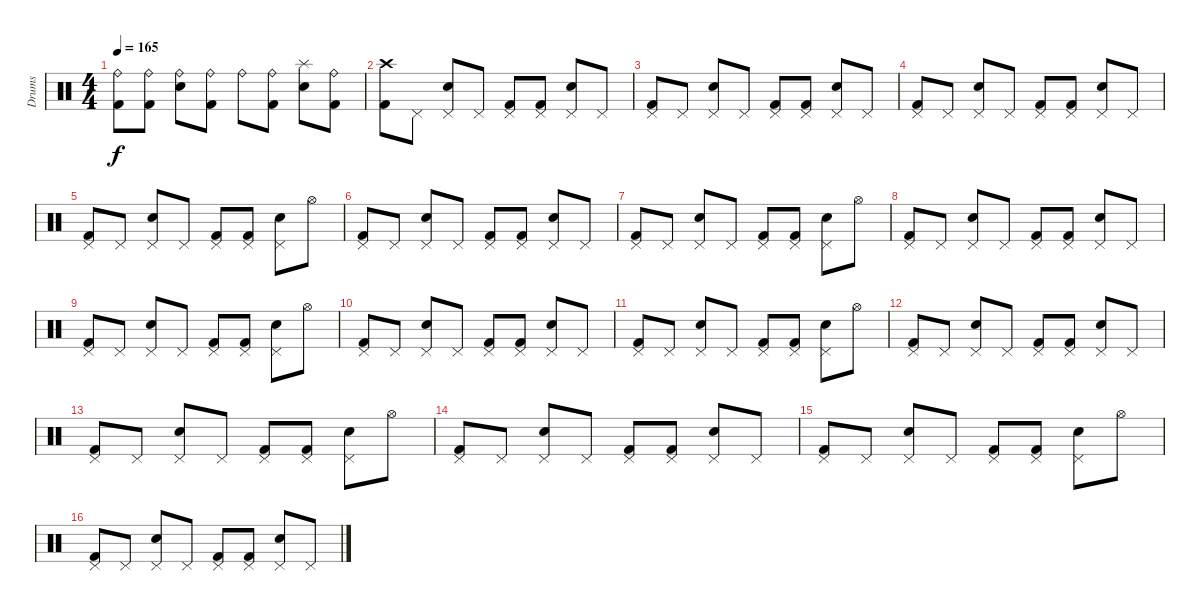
\track ("Drums" "Drums") {instrument percussion}
\staff {score}
\articulation defaults
\ts (4 4)
\tempo 165
\clef neutral
\ks c
("Ride (bell)" "Kick (hit) 2").8{dy f} ("Ride (bell)" "Kick (hit) 2").8 ("Ride (bell)" "Snare (hit) 2").8 ("Ride (bell)" "Kick (hit) 2").8 "Ride (bell)".8 ("Ride (bell)" "Kick (hit) 2").8 ("Splash (hit)" "Snare (hit) 2").8 ("Ride (bell)" "Kick (hit) 2").8 |
("Crash high (hit)" "Kick (hit) 2").8 "Pedal Hi-Hat (hit)".8 ("Pedal Hi-Hat (hit)" "Snare (hit) 2").8 "Pedal Hi-Hat (hit)".8 ("Pedal Hi-Hat (hit)" "Kick (hit) 2").8 ("Pedal Hi-Hat (hit)" "Kick (hit) 2").8 ("Pedal Hi-Hat (hit)" "Snare (hit) 2").8 "Pedal Hi-Hat (hit)".8 |
("Pedal Hi-Hat (hit)" "Kick (hit) 2").8 "Pedal Hi-Hat (hit)".8 ("Pedal Hi-Hat (hit)" "Snare (hit) 2").8 "Pedal Hi-Hat (hit)".8 ("Pedal Hi-Hat (hit)" "Kick (hit) 2").8 ("Pedal Hi-Hat (hit)" "Kick (hit) 2").8 ("Pedal Hi-Hat (hit)" "Snare (hit) 2").8 "Pedal Hi-Hat (hit)".8 |
("Pedal Hi-Hat (hit)" "Kick (hit) 2").8 "Pedal Hi-Hat (hit)".8 ("Pedal Hi-Hat (hit)" "Snare (hit) 2").8 "Pedal Hi-Hat (hit)".8 ("Pedal Hi-Hat (hit)" "Kick (hit) 2").8 ("Pedal Hi-Hat (hit)" "Kick (hit) 2").8 ("Pedal Hi-Hat (hit)" "Snare (hit) 2").8 "Pedal Hi-Hat (hit)".8 |
("Pedal Hi-Hat (hit)" "Kick (hit) 2").8 "Pedal Hi-Hat (hit)".8 ("Pedal Hi-Hat (hit)" "Snare (hit) 2").8 "Pedal Hi-Hat (hit)".8 ("Pedal Hi-Hat (hit)" "Kick (hit) 2").8 ("Pedal Hi-Hat (hit)" "Kick (hit) 2").8 ("Pedal Hi-Hat (hit)" "Snare (hit) 2").8 "Hi-Hat (open)".8 |
("Pedal Hi-Hat (hit)" "Kick (hit) 2").8 "Pedal Hi-Hat (hit)".8 ("Pedal Hi-Hat (hit)" "Snare (hit) 2").8 "Pedal Hi-Hat (hit)".8 ("Pedal Hi-Hat (hit)" "Kick (hit) 2").8 ("Pedal Hi-Hat (hit)" "Kick (hit) 2").8 ("Pedal Hi-Hat (hit)" "Snare (hit) 2").8 "Pedal Hi-Hat (hit)".8 |
("Pedal Hi-Hat (hit)" "Kick (hit) 2").8 "Pedal Hi-Hat (hit)".8 ("Pedal Hi-Hat (hit)" "Snare (hit) 2").8 "Pedal Hi-Hat (hit)".8 ("Pedal Hi-Hat (hit)" "Kick (hit) 2").8 ("Pedal Hi-Hat (hit)" "Kick (hit) 2").8 ("Pedal Hi-Hat (hit)" "Snare (hit) 2").8 "Hi-Hat (open)".8 |
("Pedal Hi-Hat (hit)" "Kick (hit) 2").8 "Pedal Hi-Hat (hit)".8 ("Pedal Hi-Hat (hit)" "Snare (hit) 2").8 "Pedal Hi-Hat (hit)".8 ("Pedal Hi-Hat (hit)" "Kick (hit) 2").8 ("Pedal Hi-Hat (hit)" "Kick (hit) 2").8 ("Pedal Hi-Hat (hit)" "Snare (hit) 2").8 "Pedal Hi-Hat (hit)".8 |
("Pedal Hi-Hat (hit)" "Kick (hit) 2").8 "Pedal Hi-Hat (hit)".8 ("Pedal Hi-Hat (hit)" "Snare (hit) 2").8 "Pedal Hi-Hat (hit)".8 ("Pedal Hi-Hat (hit)" "Kick (hit) 2").8 ("Pedal Hi-Hat (hit)" "Kick (hit) 2").8 ("Pedal Hi-Hat (hit)" "Snare (hit) 2").8 "Hi-Hat (open)".8 |
("Pedal Hi-Hat (hit)" "Kick (hit) 2").8 "Pedal Hi-Hat (hit)".8 ("Pedal Hi-Hat (hit)" "Snare (hit) 2").8 "Pedal Hi-Hat (hit)".8 ("Pedal Hi-Hat (hit)" "Kick (hit) 2").8 ("Pedal Hi-Hat (hit)" "Kick (hit) 2").8 ("Pedal Hi-Hat (hit)" "Snare (hit) 2").8 "Pedal Hi-Hat (hit)".8 |
("Pedal Hi-Hat (hit)" "Kick (hit) 2").8 "Pedal Hi-Hat (hit)".8 ("Pedal Hi-Hat (hit)" "Snare (hit) 2").8 "Pedal Hi-Hat (hit)".8 ("Pedal Hi-Hat (hit)" "Kick (hit) 2").8 ("Pedal Hi-Hat (hit)" "Kick (hit) 2").8 ("Pedal Hi-Hat (hit)" "Snare (hit) 2").8 "Hi-Hat (open)".8 |
("Pedal Hi-Hat (hit)" "Kick (hit) 2").8 "Pedal Hi-Hat (hit)".8 ("Pedal Hi-Hat (hit)" "Snare (hit) 2").8 "Pedal Hi-Hat (hit)".8 ("Pedal Hi-Hat (hit)" "Kick (hit) 2").8 ("Pedal Hi-Hat (hit)" "Kick (hit) 2").8 ("Pedal Hi-Hat (hit)" "Snare (hit) 2").8 "Pedal Hi-Hat (hit)".8 |
("Pedal Hi-Hat (hit)" "Kick (hit) 2").8 "Pedal Hi-Hat (hit)".8 ("Pedal Hi-Hat (hit)" "Snare (hit) 2").8 "Pedal Hi-Hat (hit)".8 ("Pedal Hi-Hat (hit)" "Kick (hit) 2").8 ("Pedal Hi-Hat (hit)" "Kick (hit) 2").8 ("Pedal Hi-Hat (hit)" "Snare (hit) 2").8 "Hi-Hat (open)".8 |
("Pedal Hi-Hat (hit)" "Kick (hit) 2").8 "Pedal Hi-Hat (hit)".8 ("Pedal Hi-Hat (hit)" "Snare (hit) 2").8 "Pedal Hi-Hat (hit)".8 ("Pedal Hi-Hat (hit)" "Kick (hit) 2").8 ("Pedal Hi-Hat (hit)" "Kick (hit) 2").8 ("Pedal Hi-Hat (hit)" "Snare (hit) 2").8 "Pedal Hi-Hat (hit)".8 |
("Pedal Hi-Hat (hit)" "Kick (hit) 2").8 "Pedal Hi-Hat (hit)".8 ("Pedal Hi-Hat (hit)" "Snare (hit) 2").8 "Pedal Hi-Hat (hit)".8 ("Pedal Hi-Hat (hit)" "Kick (hit) 2").8 ("Pedal Hi-Hat (hit)" "Kick (hit) 2").8 ("Pedal Hi-Hat (hit)" "Snare (hit) 2").8 "Hi-Hat (open)".8 |
("Pedal Hi-Hat (hit)" "Kick (hit) 2").8 "Pedal Hi-Hat (hit)".8 ("Pedal Hi-Hat (hit)" "Snare (hit) 2").8 "Pedal Hi-Hat (hit)".8 ("Pedal Hi-Hat (hit)" "Kick (hit) 2").8 ("Pedal Hi-Hat (hit)" "Kick (hit) 2").8 ("Pedal Hi-Hat (hit)" "Snare (hit) 2").8 "Pedal Hi-Hat (hit)".8
